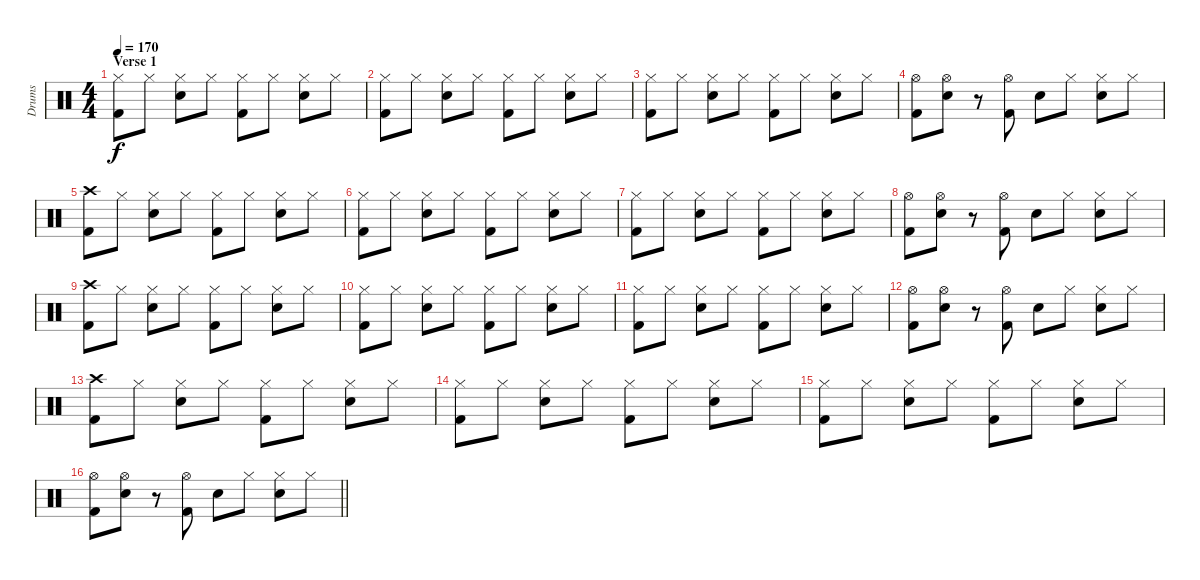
\track ("Drums" "Drums") {instrument percussion}
\staff {score}
\articulation defaults
\ts (4 4)
\section ("" "Verse 1")
\tempo 170
\clef neutral
\ks c
("Hi-Hat (closed)" "Kick (hit) 2").8{dy f} "Hi-Hat (closed)".8 ("Hi-Hat (closed)" "Snare (hit) 2").8 "Hi-Hat (closed)".8 ("Hi-Hat (closed)" "Kick (hit) 2").8 "Hi-Hat (closed)".8 ("Hi-Hat (closed)" "Snare (hit) 2").8 "Hi-Hat (closed)".8 |
("Hi-Hat (closed)" "Kick (hit) 2").8 "Hi-Hat (closed)".8 ("Hi-Hat (closed)" "Snare (hit) 2").8 "Hi-Hat (closed)".8 ("Hi-Hat (closed)" "Kick (hit) 2").8 "Hi-Hat (closed)".8 ("Hi-Hat (closed)" "Snare (hit) 2").8 "Hi-Hat (closed)".8 |
("Hi-Hat (closed)" "Kick (hit) 2").8 "Hi-Hat (closed)".8 ("Hi-Hat (closed)" "Snare (hit) 2").8 "Hi-Hat (closed)".8 ("Hi-Hat (closed)" "Kick (hit) 2").8 "Hi-Hat (closed)".8 ("Hi-Hat (closed)" "Snare (hit) 2").8 "Hi-Hat (closed)".8 |
("Hi-Hat (open)" "Kick (hit) 2").8 ("Hi-Hat (open)" "Snare (hit) 2").8 r.8 ("Hi-Hat (open)" "Kick (hit) 2").8 "Snare (hit) 2".8 "Hi-Hat (closed)".8 ("Hi-Hat (closed)" "Snare (hit) 2").8 "Hi-Hat (closed)".8 |
("Crash high (hit)" "Kick (hit) 2").8 "Hi-Hat (closed)".8 ("Hi-Hat (closed)" "Snare (hit) 2").8 "Hi-Hat (closed)".8 ("Hi-Hat (closed)" "Kick (hit) 2").8 "Hi-Hat (closed)".8 ("Hi-Hat (closed)" "Snare (hit) 2").8 "Hi-Hat (closed)".8 |
("Hi-Hat (closed)" "Kick (hit) 2").8 "Hi-Hat (closed)".8 ("Hi-Hat (closed)" "Snare (hit) 2").8 "Hi-Hat (closed)".8 ("Hi-Hat (closed)" "Kick (hit) 2").8 "Hi-Hat (closed)".8 ("Hi-Hat (closed)" "Snare (hit) 2").8 "Hi-Hat (closed)".8 |
("Hi-Hat (closed)" "Kick (hit) 2").8 "Hi-Hat (closed)".8 ("Hi-Hat (closed)" "Snare (hit) 2").8 "Hi-Hat (closed)".8 ("Hi-Hat (closed)" "Kick (hit) 2").8 "Hi-Hat (closed)".8 ("Hi-Hat (closed)" "Snare (hit) 2").8 "Hi-Hat (closed)".8 |
("Hi-Hat (open)" "Kick (hit) 2").8 ("Hi-Hat (open)" "Snare (hit) 2").8 r.8 ("Hi-Hat (open)" "Kick (hit) 2").8 "Snare (hit) 2".8 "Hi-Hat (closed)".8 ("Hi-Hat (closed)" "Snare (hit) 2").8 "Hi-Hat (closed)".8 |
("Crash high (hit)" "Kick (hit) 2").8 "Hi-Hat (closed)".8 ("Hi-Hat (closed)" "Snare (hit) 2").8 "Hi-Hat (closed)".8 ("Hi-Hat (closed)" "Kick (hit) 2").8 "Hi-Hat (closed)".8 ("Hi-Hat (closed)" "Snare (hit) 2").8 "Hi-Hat (closed)".8 |
("Hi-Hat (closed)" "Kick (hit) 2").8 "Hi-Hat (closed)".8 ("Hi-Hat (closed)" "Snare (hit) 2").8 "Hi-Hat (closed)".8 ("Hi-Hat (closed)" "Kick (hit) 2").8 "Hi-Hat (closed)".8 ("Hi-Hat (closed)" "Snare (hit) 2").8 "Hi-Hat (closed)".8 |
("Hi-Hat (closed)" "Kick (hit) 2").8 "Hi-Hat (closed)".8 ("Hi-Hat (closed)" "Snare (hit) 2").8 "Hi-Hat (closed)".8 ("Hi-Hat (closed)" "Kick (hit) 2").8 "Hi-Hat (closed)".8 ("Hi-Hat (closed)" "Snare (hit) 2").8 "Hi-Hat (closed)".8 |
("Hi-Hat (open)" "Kick (hit) 2").8 ("Hi-Hat (open)" "Snare (hit) 2").8 r.8 ("Hi-Hat (open)" "Kick (hit) 2").8 "Snare (hit) 2".8 "Hi-Hat (closed)".8 ("Hi-Hat (closed)" "Snare (hit) 2").8 "Hi-Hat (closed)".8 |
("Crash high (hit)" "Kick (hit) 2").8 "Hi-Hat (closed)".8 ("Hi-Hat (closed)" "Snare (hit) 2").8 "Hi-Hat (closed)".8 ("Hi-Hat (closed)" "Kick (hit) 2").8 "Hi-Hat (closed)".8 ("Hi-Hat (closed)" "Snare (hit) 2").8 "Hi-Hat (closed)".8 |
("Hi-Hat (closed)" "Kick (hit) 2").8 "Hi-Hat (closed)".8 ("Hi-Hat (closed)" "Snare (hit) 2").8 "Hi-Hat (closed)".8 ("Hi-Hat (closed)" "Kick (hit) 2").8 "Hi-Hat (closed)".8 ("Hi-Hat (closed)" "Snare (hit) 2").8 "Hi-Hat (closed)".8 |
("Hi-Hat (closed)" "Kick (hit) 2").8 "Hi-Hat (closed)".8 ("Hi-Hat (closed)" "Snare (hit) 2").8 "Hi-Hat (closed)".8 ("Hi-Hat (closed)" "Kick (hit) 2").8 "Hi-Hat (closed)".8 ("Hi-Hat (closed)" "Snare (hit) 2").8 "Hi-Hat (closed)".8 |
\barLineRight lightlight
("Hi-Hat (open)" "Kick (hit) 2").8 ("Hi-Hat (open)" "Snare (hit) 2").8 r.8 ("Hi-Hat (open)" "Kick (hit) 2").8 "Snare (hit) 2".8 "Hi-Hat (closed)".8 ("Hi-Hat (closed)" "Snare (hit) 2").8 "Hi-Hat (closed)".8
